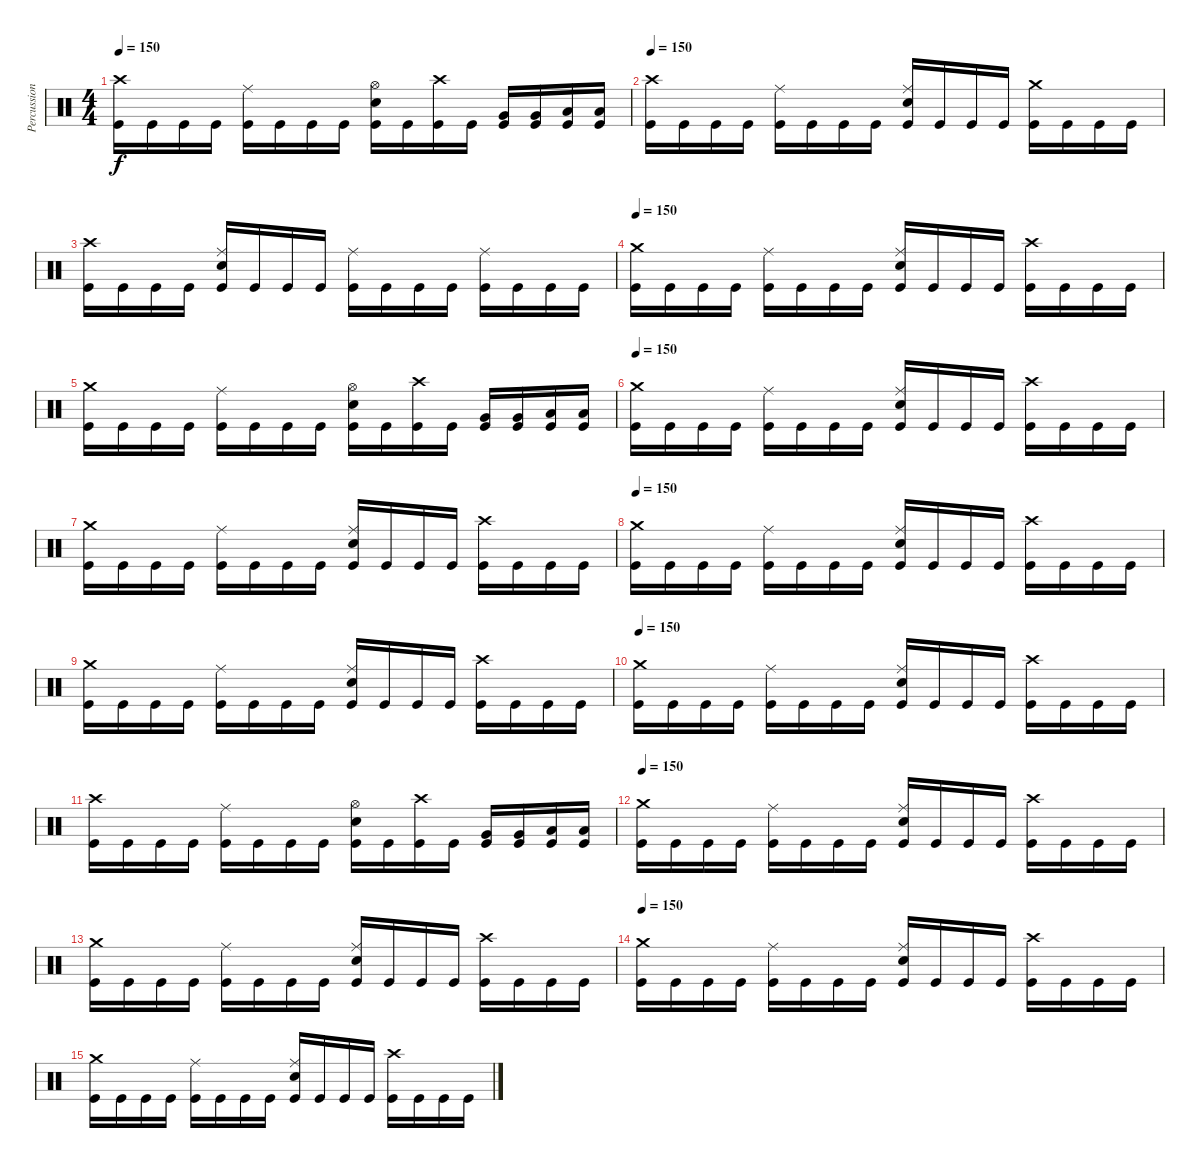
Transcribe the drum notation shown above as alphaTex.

\track ("Percussion" "Percussion") {instrument percussion}
\staff {score}
\articulation defaults
\ts (4 4)
\tempo 150
\clef neutral
\ks c
("Crash high (hit)" "Kick (hit)").16{dy f} "Kick (hit)".16 "Kick (hit)".16 "Kick (hit)".16 ("Ride (middle)" "Kick (hit)").16 "Kick (hit)".16 "Kick (hit)".16 "Kick (hit)".16 ("Hi-Hat (open)" "Electric Snare (hit)" "Kick (hit)").16 "Kick (hit)".16 ("Crash high (hit)" "Kick (hit)").16 "Kick (hit)".16 ("Very Low Tom (hit)" "Kick (hit)").16 ("Very Low Tom (hit)" "Kick (hit)").16 ("Low Floor Tom (hit)" "Kick (hit)").16 ("Low Floor Tom (hit)" "Kick (hit)").16 |
\tempo 150
("Crash high (hit)" "Kick (hit)").16 "Kick (hit)".16 "Kick (hit)".16 "Kick (hit)".16 ("Ride (middle)" "Kick (hit)").16 "Kick (hit)".16 "Kick (hit)".16 "Kick (hit)".16 ("Ride (middle)" "Electric Snare (hit)" "Kick (hit)").16 "Kick (hit)".16 "Kick (hit)".16 "Kick (hit)".16 ("Crash medium (hit)" "Kick (hit)").16 "Kick (hit)".16 "Kick (hit)".16 "Kick (hit)".16 |
("Crash high (hit)" "Kick (hit)").16 "Kick (hit)".16 "Kick (hit)".16 "Kick (hit)".16 ("Ride (middle)" "Electric Snare (hit)" "Kick (hit)").16 "Kick (hit)".16 "Kick (hit)".16 "Kick (hit)".16 ("Ride (middle)" "Kick (hit)").16 "Kick (hit)".16 "Kick (hit)".16 "Kick (hit)".16 ("Ride (middle)" "Kick (hit)").16 "Kick (hit)".16 "Kick (hit)".16 "Kick (hit)".16 |
\tempo 150
("Crash medium (hit)" "Kick (hit)").16 "Kick (hit)".16 "Kick (hit)".16 "Kick (hit)".16 ("Ride (middle)" "Kick (hit)").16 "Kick (hit)".16 "Kick (hit)".16 "Kick (hit)".16 ("Ride (middle)" "Electric Snare (hit)" "Kick (hit)").16 "Kick (hit)".16 "Kick (hit)".16 "Kick (hit)".16 ("Crash high (hit)" "Kick (hit)").16 "Kick (hit)".16 "Kick (hit)".16 "Kick (hit)".16 |
("Crash medium (hit)" "Kick (hit)").16 "Kick (hit)".16 "Kick (hit)".16 "Kick (hit)".16 ("Ride (middle)" "Kick (hit)").16 "Kick (hit)".16 "Kick (hit)".16 "Kick (hit)".16 ("Hi-Hat (open)" "Electric Snare (hit)" "Kick (hit)").16 "Kick (hit)".16 ("Crash high (hit)" "Kick (hit)").16 "Kick (hit)".16 ("Very Low Tom (hit)" "Kick (hit)").16 ("Very Low Tom (hit)" "Kick (hit)").16 ("Low Floor Tom (hit)" "Kick (hit)").16 ("Low Floor Tom (hit)" "Kick (hit)").16 |
\tempo 150
("Crash medium (hit)" "Kick (hit)").16 "Kick (hit)".16 "Kick (hit)".16 "Kick (hit)".16 ("Ride (middle)" "Kick (hit)").16 "Kick (hit)".16 "Kick (hit)".16 "Kick (hit)".16 ("Ride (middle)" "Electric Snare (hit)" "Kick (hit)").16 "Kick (hit)".16 "Kick (hit)".16 "Kick (hit)".16 ("Crash high (hit)" "Kick (hit)").16 "Kick (hit)".16 "Kick (hit)".16 "Kick (hit)".16 |
("Crash medium (hit)" "Kick (hit)").16 "Kick (hit)".16 "Kick (hit)".16 "Kick (hit)".16 ("Ride (middle)" "Kick (hit)").16 "Kick (hit)".16 "Kick (hit)".16 "Kick (hit)".16 ("Ride (middle)" "Electric Snare (hit)" "Kick (hit)").16 "Kick (hit)".16 "Kick (hit)".16 "Kick (hit)".16 ("Crash high (hit)" "Kick (hit)").16 "Kick (hit)".16 "Kick (hit)".16 "Kick (hit)".16 |
\tempo 150
("Crash medium (hit)" "Kick (hit)").16 "Kick (hit)".16 "Kick (hit)".16 "Kick (hit)".16 ("Ride (middle)" "Kick (hit)").16 "Kick (hit)".16 "Kick (hit)".16 "Kick (hit)".16 ("Ride (middle)" "Electric Snare (hit)" "Kick (hit)").16 "Kick (hit)".16 "Kick (hit)".16 "Kick (hit)".16 ("Crash high (hit)" "Kick (hit)").16 "Kick (hit)".16 "Kick (hit)".16 "Kick (hit)".16 |
("Crash medium (hit)" "Kick (hit)").16 "Kick (hit)".16 "Kick (hit)".16 "Kick (hit)".16 ("Ride (middle)" "Kick (hit)").16 "Kick (hit)".16 "Kick (hit)".16 "Kick (hit)".16 ("Ride (middle)" "Electric Snare (hit)" "Kick (hit)").16 "Kick (hit)".16 "Kick (hit)".16 "Kick (hit)".16 ("Crash high (hit)" "Kick (hit)").16 "Kick (hit)".16 "Kick (hit)".16 "Kick (hit)".16 |
\tempo 150
("Crash medium (hit)" "Kick (hit)").16 "Kick (hit)".16 "Kick (hit)".16 "Kick (hit)".16 ("Ride (middle)" "Kick (hit)").16 "Kick (hit)".16 "Kick (hit)".16 "Kick (hit)".16 ("Ride (middle)" "Electric Snare (hit)" "Kick (hit)").16 "Kick (hit)".16 "Kick (hit)".16 "Kick (hit)".16 ("Crash high (hit)" "Kick (hit)").16 "Kick (hit)".16 "Kick (hit)".16 "Kick (hit)".16 |
("Crash high (hit)" "Kick (hit)").16 "Kick (hit)".16 "Kick (hit)".16 "Kick (hit)".16 ("Ride (middle)" "Kick (hit)").16 "Kick (hit)".16 "Kick (hit)".16 "Kick (hit)".16 ("Hi-Hat (open)" "Electric Snare (hit)" "Kick (hit)").16 "Kick (hit)".16 ("Crash high (hit)" "Kick (hit)").16 "Kick (hit)".16 ("Very Low Tom (hit)" "Kick (hit)").16 ("Very Low Tom (hit)" "Kick (hit)").16 ("Low Floor Tom (hit)" "Kick (hit)").16 ("Low Floor Tom (hit)" "Kick (hit)").16 |
\tempo 150
("Crash medium (hit)" "Kick (hit)").16 "Kick (hit)".16 "Kick (hit)".16 "Kick (hit)".16 ("Ride (middle)" "Kick (hit)").16 "Kick (hit)".16 "Kick (hit)".16 "Kick (hit)".16 ("Ride (middle)" "Electric Snare (hit)" "Kick (hit)").16 "Kick (hit)".16 "Kick (hit)".16 "Kick (hit)".16 ("Crash high (hit)" "Kick (hit)").16 "Kick (hit)".16 "Kick (hit)".16 "Kick (hit)".16 |
("Crash medium (hit)" "Kick (hit)").16 "Kick (hit)".16 "Kick (hit)".16 "Kick (hit)".16 ("Ride (middle)" "Kick (hit)").16 "Kick (hit)".16 "Kick (hit)".16 "Kick (hit)".16 ("Ride (middle)" "Electric Snare (hit)" "Kick (hit)").16 "Kick (hit)".16 "Kick (hit)".16 "Kick (hit)".16 ("Crash high (hit)" "Kick (hit)").16 "Kick (hit)".16 "Kick (hit)".16 "Kick (hit)".16 |
\tempo 150
("Crash medium (hit)" "Kick (hit)").16 "Kick (hit)".16 "Kick (hit)".16 "Kick (hit)".16 ("Ride (middle)" "Kick (hit)").16 "Kick (hit)".16 "Kick (hit)".16 "Kick (hit)".16 ("Ride (middle)" "Electric Snare (hit)" "Kick (hit)").16 "Kick (hit)".16 "Kick (hit)".16 "Kick (hit)".16 ("Crash high (hit)" "Kick (hit)").16 "Kick (hit)".16 "Kick (hit)".16 "Kick (hit)".16 |
("Crash medium (hit)" "Kick (hit)").16 "Kick (hit)".16 "Kick (hit)".16 "Kick (hit)".16 ("Ride (middle)" "Kick (hit)").16 "Kick (hit)".16 "Kick (hit)".16 "Kick (hit)".16 ("Ride (middle)" "Electric Snare (hit)" "Kick (hit)").16 "Kick (hit)".16 "Kick (hit)".16 "Kick (hit)".16 ("Crash high (hit)" "Kick (hit)").16 "Kick (hit)".16 "Kick (hit)".16 "Kick (hit)".16
